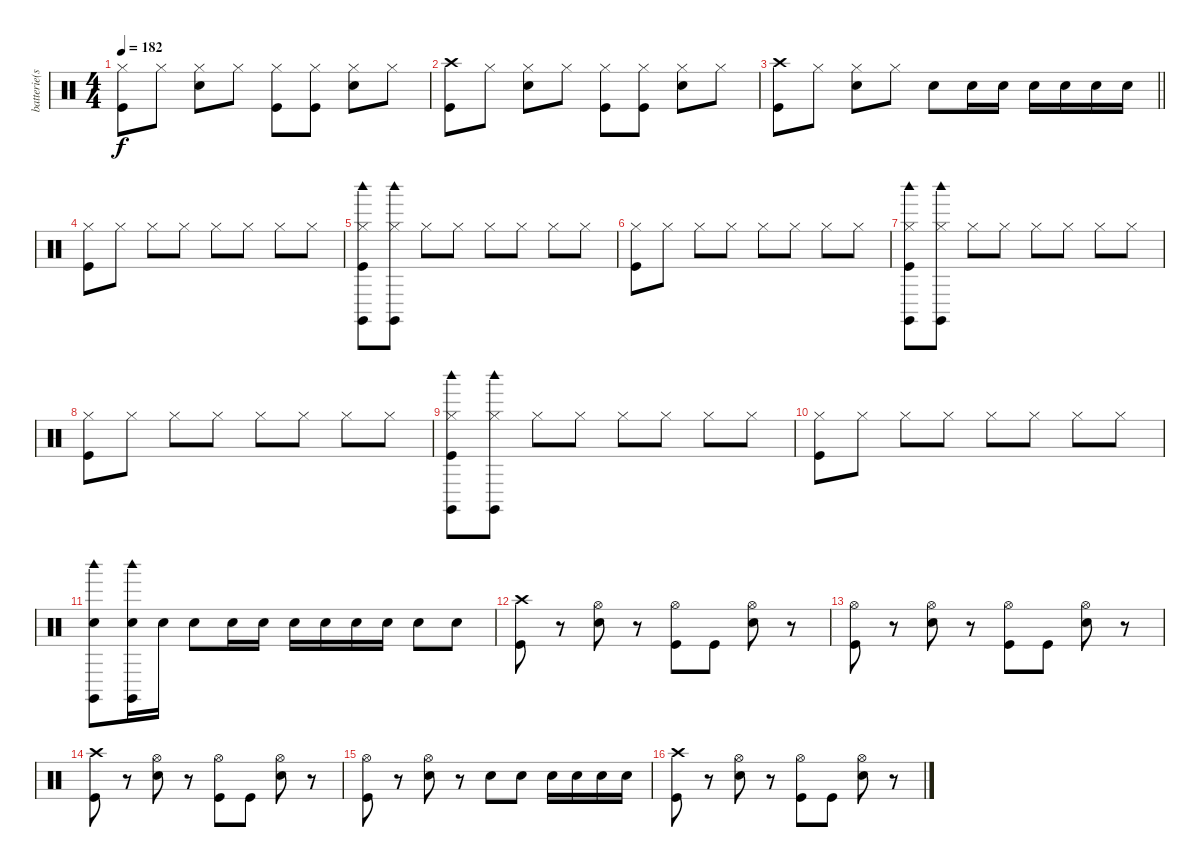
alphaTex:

\track ("batterie(scott)" "batterie(s") {instrument percussion}
\staff {score}
\articulation defaults
\ts (4 4)
\tempo 182
\clef neutral
\ks c
("Hi-Hat (closed)" "Kick (hit)").8{dy f} "Hi-Hat (closed)".8 ("Hi-Hat (closed)" "Snare (hit) 2").8 "Hi-Hat (closed)".8 ("Hi-Hat (closed)" "Kick (hit)").8 ("Hi-Hat (closed)" "Kick (hit)").8 ("Hi-Hat (closed)" "Snare (hit) 2").8 "Hi-Hat (closed)".8 |
("Crash high (hit)" "Kick (hit)").8 "Hi-Hat (closed)".8 ("Hi-Hat (closed)" "Snare (hit) 2").8 "Hi-Hat (closed)".8 ("Hi-Hat (closed)" "Kick (hit)").8 ("Hi-Hat (closed)" "Kick (hit)").8 ("Hi-Hat (closed)" "Snare (hit) 2").8 "Hi-Hat (closed)".8 |
\barLineRight lightlight
("Crash high (hit)" "Kick (hit)").8 "Hi-Hat (closed)".8 ("Hi-Hat (closed)" "Snare (hit) 2").8 "Hi-Hat (closed)".8 "Snare (hit) 2".8 "Snare (hit) 2".16 "Snare (hit) 2".16 "Snare (hit) 2".16 "Snare (hit) 2".16 "Snare (hit) 2".16 "Snare (hit) 2".16 |
("Hi-Hat (closed)" "Kick (hit)").8 "Hi-Hat (closed)".8 "Hi-Hat (closed)".8 "Hi-Hat (closed)".8 "Hi-Hat (closed)".8 "Hi-Hat (closed)".8 "Hi-Hat (closed)".8 "Hi-Hat (closed)".8 |
("Hi-Hat (closed)" "Claves (hit)" "Woodblock high (hit)" "Kick (hit)").8 ("Hi-Hat (closed)" "Claves (hit)" "Woodblock high (hit)").8 "Hi-Hat (closed)".8 "Hi-Hat (closed)".8 "Hi-Hat (closed)".8 "Hi-Hat (closed)".8 "Hi-Hat (closed)".8 "Hi-Hat (closed)".8 |
("Hi-Hat (closed)" "Kick (hit)").8 "Hi-Hat (closed)".8 "Hi-Hat (closed)".8 "Hi-Hat (closed)".8 "Hi-Hat (closed)".8 "Hi-Hat (closed)".8 "Hi-Hat (closed)".8 "Hi-Hat (closed)".8 |
("Hi-Hat (closed)" "Claves (hit)" "Woodblock high (hit)" "Kick (hit)").8 ("Hi-Hat (closed)" "Claves (hit)" "Woodblock high (hit)").8 "Hi-Hat (closed)".8 "Hi-Hat (closed)".8 "Hi-Hat (closed)".8 "Hi-Hat (closed)".8 "Hi-Hat (closed)".8 "Hi-Hat (closed)".8 |
("Hi-Hat (closed)" "Kick (hit)").8 "Hi-Hat (closed)".8 "Hi-Hat (closed)".8 "Hi-Hat (closed)".8 "Hi-Hat (closed)".8 "Hi-Hat (closed)".8 "Hi-Hat (closed)".8 "Hi-Hat (closed)".8 |
("Hi-Hat (closed)" "Claves (hit)" "Woodblock high (hit)" "Kick (hit)").8 ("Hi-Hat (closed)" "Claves (hit)" "Woodblock high (hit)").8 "Hi-Hat (closed)".8 "Hi-Hat (closed)".8 "Hi-Hat (closed)".8 "Hi-Hat (closed)".8 "Hi-Hat (closed)".8 "Hi-Hat (closed)".8 |
("Hi-Hat (closed)" "Kick (hit)").8 "Hi-Hat (closed)".8 "Hi-Hat (closed)".8 "Hi-Hat (closed)".8 "Hi-Hat (closed)".8 "Hi-Hat (closed)".8 "Hi-Hat (closed)".8 "Hi-Hat (closed)".8 |
("Claves (hit)" "Woodblock high (hit)" "Snare (hit) 2").8 ("Claves (hit)" "Woodblock high (hit)" "Snare (hit) 2").16 "Snare (hit) 2".16 "Snare (hit) 2".8 "Snare (hit) 2".16 "Snare (hit) 2".16 "Snare (hit) 2".16 "Snare (hit) 2".16 "Snare (hit) 2".16 "Snare (hit) 2".16 "Snare (hit) 2".8 "Snare (hit) 2".8 |
("Crash high (hit)" "Kick (hit)").8 r.8 ("Hi-Hat (open)" "Snare (hit) 2").8 r.8 ("Hi-Hat (open)" "Kick (hit)").8 "Kick (hit)".8 ("Hi-Hat (open)" "Snare (hit) 2").8 r.8 |
("Hi-Hat (open)" "Kick (hit)").8 r.8 ("Hi-Hat (open)" "Snare (hit) 2").8 r.8 ("Hi-Hat (open)" "Kick (hit)").8 "Kick (hit)".8 ("Hi-Hat (open)" "Snare (hit) 2").8 r.8 |
("Crash high (hit)" "Kick (hit)").8 r.8 ("Hi-Hat (open)" "Snare (hit) 2").8 r.8 ("Hi-Hat (open)" "Kick (hit)").8 "Kick (hit)".8 ("Hi-Hat (open)" "Snare (hit) 2").8 r.8 |
("Hi-Hat (open)" "Kick (hit)").8 r.8 ("Hi-Hat (open)" "Snare (hit) 2").8 r.8 "Snare (hit) 2".8 "Snare (hit) 2".8 "Snare (hit) 2".16 "Snare (hit) 2".16 "Snare (hit) 2".16 "Snare (hit) 2".16 |
("Crash high (hit)" "Kick (hit)").8 r.8 ("Hi-Hat (open)" "Snare (hit) 2").8 r.8 ("Hi-Hat (open)" "Kick (hit)").8 "Kick (hit)".8 ("Hi-Hat (open)" "Snare (hit) 2").8 r.8
